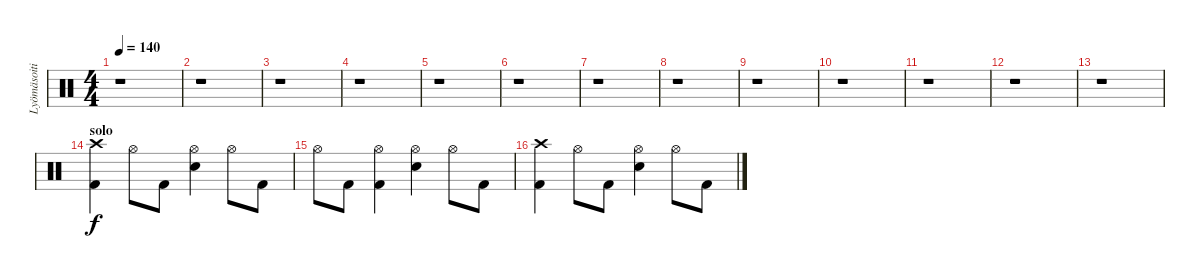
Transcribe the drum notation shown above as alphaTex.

\track ("Lyömäsoitin" "Lyömäsoiti") {instrument percussion}
\staff {score}
\articulation defaults
\ts (4 4)
\tempo 140
\clef neutral
\ks c
r.1{dy f} |
r.1 |
r.1 |
r.1 |
r.1 |
r.1 |
r.1 |
r.1 |
r.1 |
r.1 |
r.1 |
r.1 |
r.1 |
\section ("" "solo")
("Kick (hit) 2" "Crash high (hit)").4 "Hi-Hat (open)".8 "Kick (hit) 2".8 ("Hi-Hat (open)" "Snare (hit) 2").4 "Hi-Hat (open)".8 "Kick (hit) 2".8 |
"Hi-Hat (open)".8 "Kick (hit) 2".8 ("Kick (hit) 2" "Hi-Hat (open)").4 ("Hi-Hat (open)" "Snare (hit) 2").4 "Hi-Hat (open)".8 "Kick (hit) 2".8 |
("Kick (hit) 2" "Crash high (hit)").4 "Hi-Hat (open)".8 "Kick (hit) 2".8 ("Hi-Hat (open)" "Snare (hit) 2").4 "Hi-Hat (open)".8 "Kick (hit) 2".8
